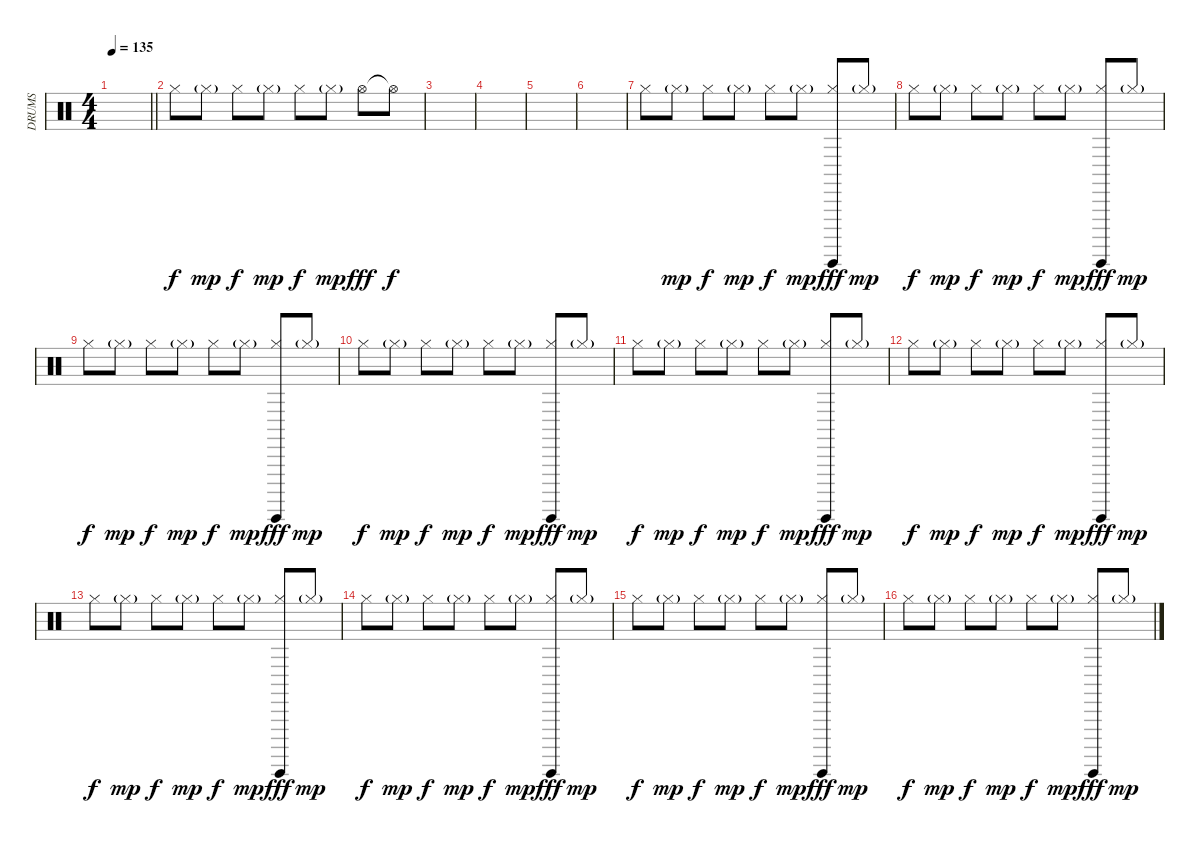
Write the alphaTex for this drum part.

\track ("DRUMS" "DRUMS") {instrument percussion}
\staff {score}
\articulation defaults
\ts (4 4)
\tempo 135
\clef neutral
\barLineRight lightlight
\ks c
|
"Hi-Hat (closed)".8 "Hi-Hat (closed)"{g}.8{dy mp} "Hi-Hat (closed)".8{dy f} "Hi-Hat (closed)"{g}.8{dy mp} "Hi-Hat (closed)".8{dy f} "Hi-Hat (closed)"{g}.8{dy mp} "Hi-Hat (open)".8{dy fff} "Hi-Hat (open)"{t}.8{dy f} |
|
|
|
|
"Hi-Hat (closed)".8{volume 13} "Hi-Hat (closed)"{g}.8{dy mp} "Hi-Hat (closed)".8{dy f} "Hi-Hat (closed)"{g}.8{dy mp} "Hi-Hat (closed)".8{dy f} "Hi-Hat (closed)"{g}.8{dy mp} ("Hi-Hat (closed)" "Guiro (hit)").8{dy fff} "Hi-Hat (closed)"{g}.8{dy mp} |
"Hi-Hat (closed)".8{dy f} "Hi-Hat (closed)"{g}.8{dy mp} "Hi-Hat (closed)".8{dy f} "Hi-Hat (closed)"{g}.8{dy mp} "Hi-Hat (closed)".8{dy f} "Hi-Hat (closed)"{g}.8{dy mp} ("Hi-Hat (closed)" "Guiro (hit)").8{dy fff} "Hi-Hat (closed)"{g}.8{dy mp} |
"Hi-Hat (closed)".8{dy f} "Hi-Hat (closed)"{g}.8{dy mp} "Hi-Hat (closed)".8{dy f} "Hi-Hat (closed)"{g}.8{dy mp} "Hi-Hat (closed)".8{dy f} "Hi-Hat (closed)"{g}.8{dy mp} ("Hi-Hat (closed)" "Guiro (hit)").8{dy fff} "Hi-Hat (closed)"{g}.8{dy mp} |
"Hi-Hat (closed)".8{dy f} "Hi-Hat (closed)"{g}.8{dy mp} "Hi-Hat (closed)".8{dy f} "Hi-Hat (closed)"{g}.8{dy mp} "Hi-Hat (closed)".8{dy f} "Hi-Hat (closed)"{g}.8{dy mp} ("Hi-Hat (closed)" "Guiro (hit)").8{dy fff} "Hi-Hat (closed)"{g}.8{dy mp} |
"Hi-Hat (closed)".8{dy f} "Hi-Hat (closed)"{g}.8{dy mp} "Hi-Hat (closed)".8{dy f} "Hi-Hat (closed)"{g}.8{dy mp} "Hi-Hat (closed)".8{dy f} "Hi-Hat (closed)"{g}.8{dy mp} ("Hi-Hat (closed)" "Guiro (hit)").8{dy fff} "Hi-Hat (closed)"{g}.8{dy mp} |
"Hi-Hat (closed)".8{dy f} "Hi-Hat (closed)"{g}.8{dy mp} "Hi-Hat (closed)".8{dy f} "Hi-Hat (closed)"{g}.8{dy mp} "Hi-Hat (closed)".8{dy f} "Hi-Hat (closed)"{g}.8{dy mp} ("Hi-Hat (closed)" "Guiro (hit)").8{dy fff} "Hi-Hat (closed)"{g}.8{dy mp} |
"Hi-Hat (closed)".8{dy f} "Hi-Hat (closed)"{g}.8{dy mp} "Hi-Hat (closed)".8{dy f} "Hi-Hat (closed)"{g}.8{dy mp} "Hi-Hat (closed)".8{dy f} "Hi-Hat (closed)"{g}.8{dy mp} ("Hi-Hat (closed)" "Guiro (hit)").8{dy fff} "Hi-Hat (closed)"{g}.8{dy mp} |
"Hi-Hat (closed)".8{dy f} "Hi-Hat (closed)"{g}.8{dy mp} "Hi-Hat (closed)".8{dy f} "Hi-Hat (closed)"{g}.8{dy mp} "Hi-Hat (closed)".8{dy f} "Hi-Hat (closed)"{g}.8{dy mp} ("Hi-Hat (closed)" "Guiro (hit)").8{dy fff} "Hi-Hat (closed)"{g}.8{dy mp} |
"Hi-Hat (closed)".8{dy f} "Hi-Hat (closed)"{g}.8{dy mp} "Hi-Hat (closed)".8{dy f} "Hi-Hat (closed)"{g}.8{dy mp} "Hi-Hat (closed)".8{dy f} "Hi-Hat (closed)"{g}.8{dy mp} ("Hi-Hat (closed)" "Guiro (hit)").8{dy fff} "Hi-Hat (closed)"{g}.8{dy mp} |
"Hi-Hat (closed)".8{dy f} "Hi-Hat (closed)"{g}.8{dy mp} "Hi-Hat (closed)".8{dy f} "Hi-Hat (closed)"{g}.8{dy mp} "Hi-Hat (closed)".8{dy f} "Hi-Hat (closed)"{g}.8{dy mp} ("Hi-Hat (closed)" "Guiro (hit)").8{dy fff} "Hi-Hat (closed)"{g}.8{dy mp}
